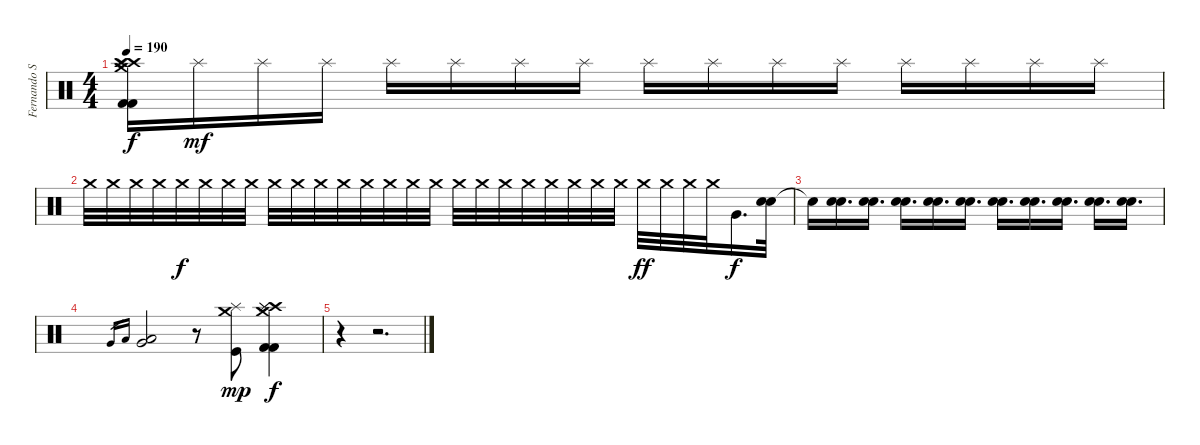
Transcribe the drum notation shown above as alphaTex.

\track ("Fernando Scarcella" "Fernando S") {instrument percussion}
\staff {score}
\articulation defaults
\ts (4 4)
\tempo 190
\clef neutral
\ks c
("Crash medium (hit)" "Crash high (hit)" "Crash high (hit)" "Splash (hit)" "Kick (hit) 2" "Kick (hit) 2").16{dy f} "Splash (hit)".16{dy mf} "Splash (hit)".16 "Splash (hit)".16 "Splash (hit)".16 "Splash (hit)".16 "Splash (hit)".16 "Splash (hit)".16 "Splash (hit)".16 "Splash (hit)".16 "Splash (hit)".16 "Splash (hit)".16 "Splash (hit)".16 "Splash (hit)".16 "Splash (hit)".16 "Splash (hit)".16 |
"Crash medium (hit)".32 "Crash medium (hit)".32 "Crash medium (hit)".32 "Crash medium (hit)".32 "Crash medium (hit)".32{dy f} "Crash medium (hit)".32 "Crash medium (hit)".32 "Crash medium (hit)".32 "Crash medium (hit)".32 "Crash medium (hit)".32 "Crash medium (hit)".32 "Crash medium (hit)".32 "Crash medium (hit)".32 "Crash medium (hit)".32 "Crash medium (hit)".32 "Crash medium (hit)".32 "Crash medium (hit)".32 "Crash medium (hit)".32 "Crash medium (hit)".32 "Crash medium (hit)".32 "Crash medium (hit)".32 "Crash medium (hit)".32 "Crash medium (hit)".32 "Crash medium (hit)".32 "Crash medium (hit)".32{dy ff} "Crash medium (hit)".32 "Crash medium (hit)".32 "Crash medium (hit)".32 "Very Low Tom (hit)".16{d dy f} ("Electric Snare (hit)" "Electric Snare (hit)").32 |
"Snare (hit)"{t}.16 ("Electric Snare (hit)" "Electric Snare (hit)").16{d} ("Electric Snare (hit)" "Electric Snare (hit)").16{d} ("Electric Snare (hit)" "Electric Snare (hit)").16{d} ("Electric Snare (hit)" "Electric Snare (hit)").16{d} ("Electric Snare (hit)" "Electric Snare (hit)").16{d} ("Electric Snare (hit)" "Electric Snare (hit)").16{d} ("Electric Snare (hit)" "Electric Snare (hit)").16{d} ("Electric Snare (hit)" "Electric Snare (hit)").16{d} ("Electric Snare (hit)" "Electric Snare (hit)").16{d} ("Electric Snare (hit)" "Electric Snare (hit)").16{d} |
"Very Low Tom (hit)".16{gr} "Low Tom (hit)".16{gr} ("Very Low Tom (hit)" "Low Tom (hit)").2 r.8 ("Crash medium (hit)" "Splash (hit)" "Kick (hit)").8{dy mp} ("Crash high (hit)" "Splash (hit)" "Kick (hit) 2" "Crash medium (hit)" "Kick (hit) 2" "Splash (hit)").4{dy f} |
r.4 r.2{d}
